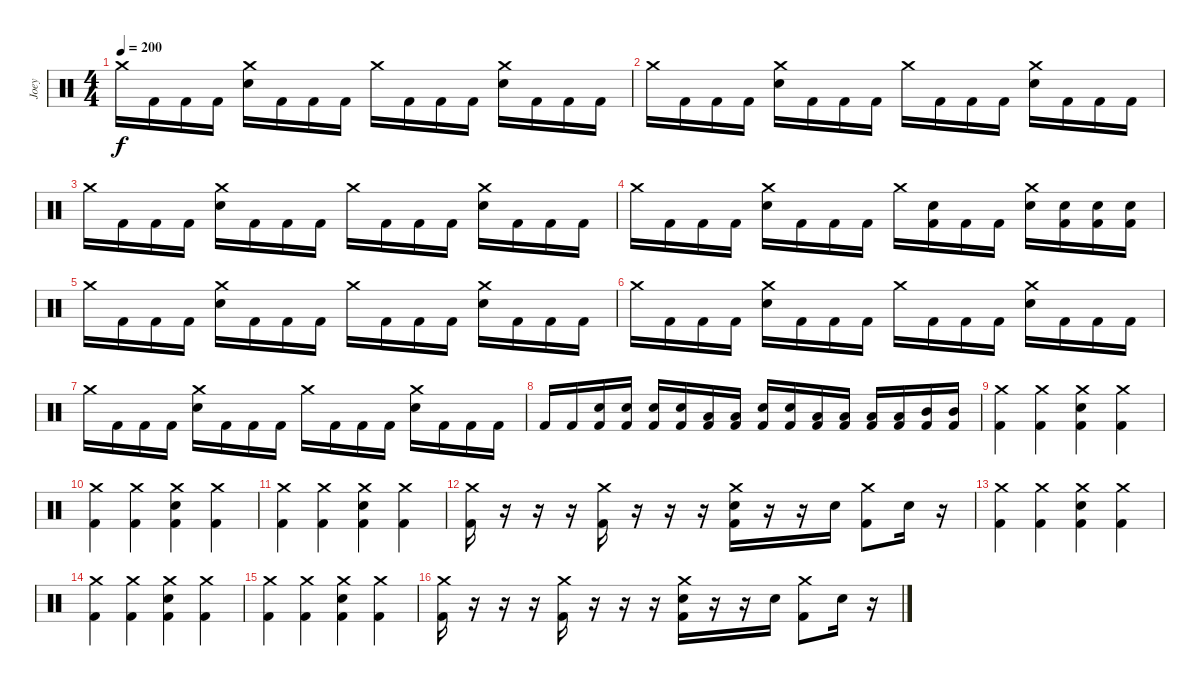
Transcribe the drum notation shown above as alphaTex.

\track ("Joey" "Joey") {instrument percussion}
\staff {score}
\articulation defaults
\ts (4 4)
\tempo 200
\clef neutral
\ks c "Crash medium (hit)".16{dy f} "Kick (hit) 2".16 "Kick (hit) 2".16 "Kick (hit) 2".16
("Crash medium (hit)" "Electric Snare (hit)").16 "Kick (hit) 2".16 "Kick (hit) 2".16 "Kick (hit) 2".16 "Crash medium (hit)".16 "Kick (hit) 2".16 "Kick (hit) 2".16 "Kick (hit) 2".16 ("Crash medium (hit)" "Electric Snare (hit)").16 "Kick (hit) 2".16 "Kick (hit) 2".16 "Kick (hit) 2".16 |
"Crash medium (hit)".16 "Kick (hit) 2".16 "Kick (hit) 2".16 "Kick (hit) 2".16 ("Crash medium (hit)" "Electric Snare (hit)").16 "Kick (hit) 2".16 "Kick (hit) 2".16 "Kick (hit) 2".16 "Crash medium (hit)".16 "Kick (hit) 2".16 "Kick (hit) 2".16 "Kick (hit) 2".16 ("Crash medium (hit)" "Electric Snare (hit)").16 "Kick (hit) 2".16 "Kick (hit) 2".16 "Kick (hit) 2".16 |
"Crash medium (hit)".16 "Kick (hit) 2".16 "Kick (hit) 2".16 "Kick (hit) 2".16 ("Crash medium (hit)" "Electric Snare (hit)").16 "Kick (hit) 2".16 "Kick (hit) 2".16 "Kick (hit) 2".16 "Crash medium (hit)".16 "Kick (hit) 2".16 "Kick (hit) 2".16 "Kick (hit) 2".16 ("Crash medium (hit)" "Electric Snare (hit)").16 "Kick (hit) 2".16 "Kick (hit) 2".16 "Kick (hit) 2".16 |
"Crash medium (hit)".16 "Kick (hit) 2".16 "Kick (hit) 2".16 "Kick (hit) 2".16 ("Crash medium (hit)" "Electric Snare (hit)").16 "Kick (hit) 2".16 "Kick (hit) 2".16 "Kick (hit) 2".16 "Crash medium (hit)".16 ("Electric Snare (hit)" "Kick (hit) 2").16 "Kick (hit) 2".16 "Kick (hit) 2".16 ("Crash medium (hit)" "Electric Snare (hit)").16 ("Electric Snare (hit)" "Kick (hit) 2").16 ("Electric Snare (hit)" "Kick (hit) 2").16 ("Electric Snare (hit)" "Kick (hit) 2").16 |
"Crash medium (hit)".16 "Kick (hit) 2".16 "Kick (hit) 2".16 "Kick (hit) 2".16 ("Crash medium (hit)" "Electric Snare (hit)").16 "Kick (hit) 2".16 "Kick (hit) 2".16 "Kick (hit) 2".16 "Crash medium (hit)".16 "Kick (hit) 2".16 "Kick (hit) 2".16 "Kick (hit) 2".16 ("Crash medium (hit)" "Electric Snare (hit)").16 "Kick (hit) 2".16 "Kick (hit) 2".16 "Kick (hit) 2".16 |
"Crash medium (hit)".16 "Kick (hit) 2".16 "Kick (hit) 2".16 "Kick (hit) 2".16 ("Crash medium (hit)" "Electric Snare (hit)").16 "Kick (hit) 2".16 "Kick (hit) 2".16 "Kick (hit) 2".16 "Crash medium (hit)".16 "Kick (hit) 2".16 "Kick (hit) 2".16 "Kick (hit) 2".16 ("Crash medium (hit)" "Electric Snare (hit)").16 "Kick (hit) 2".16 "Kick (hit) 2".16 "Kick (hit) 2".16 |
"Crash medium (hit)".16 "Kick (hit) 2".16 "Kick (hit) 2".16 "Kick (hit) 2".16 ("Crash medium (hit)" "Electric Snare (hit)").16 "Kick (hit) 2".16 "Kick (hit) 2".16 "Kick (hit) 2".16 "Crash medium (hit)".16 "Kick (hit) 2".16 "Kick (hit) 2".16 "Kick (hit) 2".16 ("Crash medium (hit)" "Electric Snare (hit)").16 "Kick (hit) 2".16 "Kick (hit) 2".16 "Kick (hit) 2".16 |
"Kick (hit) 2".16 "Kick (hit) 2".16 ("Kick (hit) 2" "Electric Snare (hit)").16 ("Kick (hit) 2" "Electric Snare (hit)").16 ("Kick (hit) 2" "Electric Snare (hit)").16 ("Kick (hit) 2" "Electric Snare (hit)").16 ("Kick (hit) 2" "Low Floor Tom (hit)").16 ("Kick (hit) 2" "Low Floor Tom (hit)").16 ("Kick (hit) 2" "Electric Snare (hit)").16 ("Kick (hit) 2" "Electric Snare (hit)").16 ("Kick (hit) 2" "Low Floor Tom (hit)").16 ("Kick (hit) 2" "Low Floor Tom (hit)").16 ("Kick (hit) 2" "Low Tom (hit)").16 ("Kick (hit) 2" "Low Tom (hit)").16 ("Kick (hit) 2" "Mid Tom (hit)").16 ("Kick (hit) 2" "Mid Tom (hit)").16 |
("Crash medium (hit)" "Kick (hit) 2").4 ("Crash medium (hit)" "Kick (hit) 2").4 ("Crash medium (hit)" "Electric Snare (hit)" "Kick (hit) 2").4 ("Crash medium (hit)" "Kick (hit) 2").4 |
("Crash medium (hit)" "Kick (hit) 2").4 ("Crash medium (hit)" "Kick (hit) 2").4 ("Crash medium (hit)" "Electric Snare (hit)" "Kick (hit) 2").4 ("Crash medium (hit)" "Kick (hit) 2").4 |
("Crash medium (hit)" "Kick (hit) 2").4 ("Crash medium (hit)" "Kick (hit) 2").4 ("Crash medium (hit)" "Electric Snare (hit)" "Kick (hit) 2").4 ("Crash medium (hit)" "Kick (hit) 2").4 |
("Crash medium (hit)" "Kick (hit) 2").16 r.16 r.16 r.16 ("Crash medium (hit)" "Kick (hit) 2").16 r.16 r.16 r.16 ("Crash medium (hit)" "Electric Snare (hit)" "Kick (hit) 2").16 r.16 r.16 "Electric Snare (hit)".16 ("Crash medium (hit)" "Kick (hit) 2").8 "Electric Snare (hit)".16 r.16 |
("Crash medium (hit)" "Kick (hit) 2").4 ("Crash medium (hit)" "Kick (hit) 2").4 ("Crash medium (hit)" "Electric Snare (hit)" "Kick (hit) 2").4 ("Crash medium (hit)" "Kick (hit) 2").4 |
("Crash medium (hit)" "Kick (hit) 2").4 ("Crash medium (hit)" "Kick (hit) 2").4 ("Crash medium (hit)" "Electric Snare (hit)" "Kick (hit) 2").4 ("Crash medium (hit)" "Kick (hit) 2").4 |
("Crash medium (hit)" "Kick (hit) 2").4 ("Crash medium (hit)" "Kick (hit) 2").4 ("Crash medium (hit)" "Electric Snare (hit)" "Kick (hit) 2").4 ("Crash medium (hit)" "Kick (hit) 2").4 |
("Crash medium (hit)" "Kick (hit) 2").16 r.16 r.16 r.16 ("Crash medium (hit)" "Kick (hit) 2").16 r.16 r.16 r.16 ("Crash medium (hit)" "Electric Snare (hit)" "Kick (hit) 2").16 r.16 r.16 "Electric Snare (hit)".16 ("Crash medium (hit)" "Kick (hit) 2").8 "Electric Snare (hit)".16 r.16
